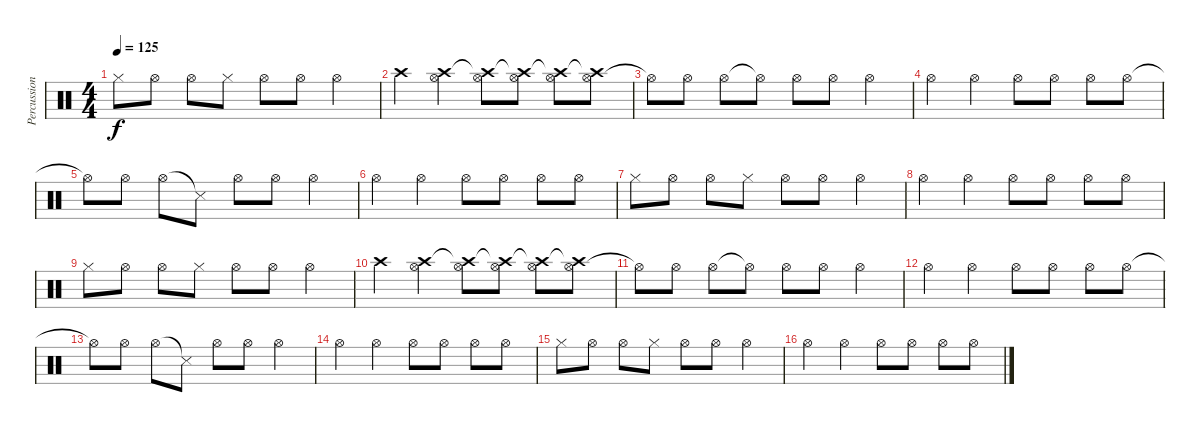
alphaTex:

\track ("Percussions" "Percussion") {instrument percussion}
\staff {score}
\articulation defaults
\ts (4 4)
\tempo 125
\clef neutral
\ks c "Hi-Hat (closed)".8{dy f} "Hi-Hat (open)".8 "Hi-Hat (open)".8 "Hi-Hat (closed)".8 "Hi-Hat (open)".8 "Hi-Hat (open)".8 "Hi-Hat (open)".4
|
"Crash high (hit)".4 ("Hi-Hat (open)" "Crash high (hit)").4 ("Hi-Hat (open)" "Crash high (hit)"{t}).8 ("Hi-Hat (open)" "Crash high (hit)"{t}).8 ("Hi-Hat (open)" "Crash high (hit)"{t}).8 ("Hi-Hat (open)" "Crash high (hit)"{t}).8 |
"Hi-Hat (open)"{t}.8 "Hi-Hat (open)".8 "Hi-Hat (open)".8 "Hi-Hat (open)"{t}.8 "Hi-Hat (open)".8 "Hi-Hat (open)".8 "Hi-Hat (open)".4 |
"Hi-Hat (open)".4 "Hi-Hat (open)".4 "Hi-Hat (open)".8 "Hi-Hat (open)".8 "Hi-Hat (open)".8 "Hi-Hat (open)".8 |
"Hi-Hat (open)"{t}.8 "Hi-Hat (open)".8 "Hi-Hat (open)".8 "Snare (side stick) 3"{t}.8 "Hi-Hat (open)".8 "Hi-Hat (open)".8 "Hi-Hat (open)".4 |
"Hi-Hat (open)".4 "Hi-Hat (open)".4 "Hi-Hat (open)".8 "Hi-Hat (open)".8 "Hi-Hat (open)".8 "Hi-Hat (open)".8 |
"Hi-Hat (closed)".8 "Hi-Hat (open)".8 "Hi-Hat (open)".8 "Hi-Hat (closed)".8 "Hi-Hat (open)".8 "Hi-Hat (open)".8 "Hi-Hat (open)".4 |
"Hi-Hat (open)".4 "Hi-Hat (open)".4 "Hi-Hat (open)".8 "Hi-Hat (open)".8 "Hi-Hat (open)".8 "Hi-Hat (open)".8 |
"Hi-Hat (closed)".8 "Hi-Hat (open)".8 "Hi-Hat (open)".8 "Hi-Hat (closed)".8 "Hi-Hat (open)".8 "Hi-Hat (open)".8 "Hi-Hat (open)".4 |
"Crash high (hit)".4 ("Hi-Hat (open)" "Crash high (hit)").4 ("Hi-Hat (open)" "Crash high (hit)"{t}).8 ("Hi-Hat (open)" "Crash high (hit)"{t}).8 ("Hi-Hat (open)" "Crash high (hit)"{t}).8 ("Hi-Hat (open)" "Crash high (hit)"{t}).8 |
"Hi-Hat (open)"{t}.8 "Hi-Hat (open)".8 "Hi-Hat (open)".8 "Hi-Hat (open)"{t}.8 "Hi-Hat (open)".8 "Hi-Hat (open)".8 "Hi-Hat (open)".4 |
"Hi-Hat (open)".4{volume 8} "Hi-Hat (open)".4 "Hi-Hat (open)".8 "Hi-Hat (open)".8 "Hi-Hat (open)".8 "Hi-Hat (open)".8 |
"Hi-Hat (open)"{t}.8 "Hi-Hat (open)".8 "Hi-Hat (open)".8 "Snare (side stick) 3"{t}.8 "Hi-Hat (open)".8 "Hi-Hat (open)".8 "Hi-Hat (open)".4 |
"Hi-Hat (open)".4{volume 7} "Hi-Hat (open)".4 "Hi-Hat (open)".8 "Hi-Hat (open)".8 "Hi-Hat (open)".8 "Hi-Hat (open)".8 |
"Hi-Hat (closed)".8 "Hi-Hat (open)".8 "Hi-Hat (open)".8 "Hi-Hat (closed)".8 "Hi-Hat (open)".8 "Hi-Hat (open)".8 "Hi-Hat (open)".4 |
"Hi-Hat (open)".4{volume 6} "Hi-Hat (open)".4 "Hi-Hat (open)".8 "Hi-Hat (open)".8 "Hi-Hat (open)".8 "Hi-Hat (open)".8
